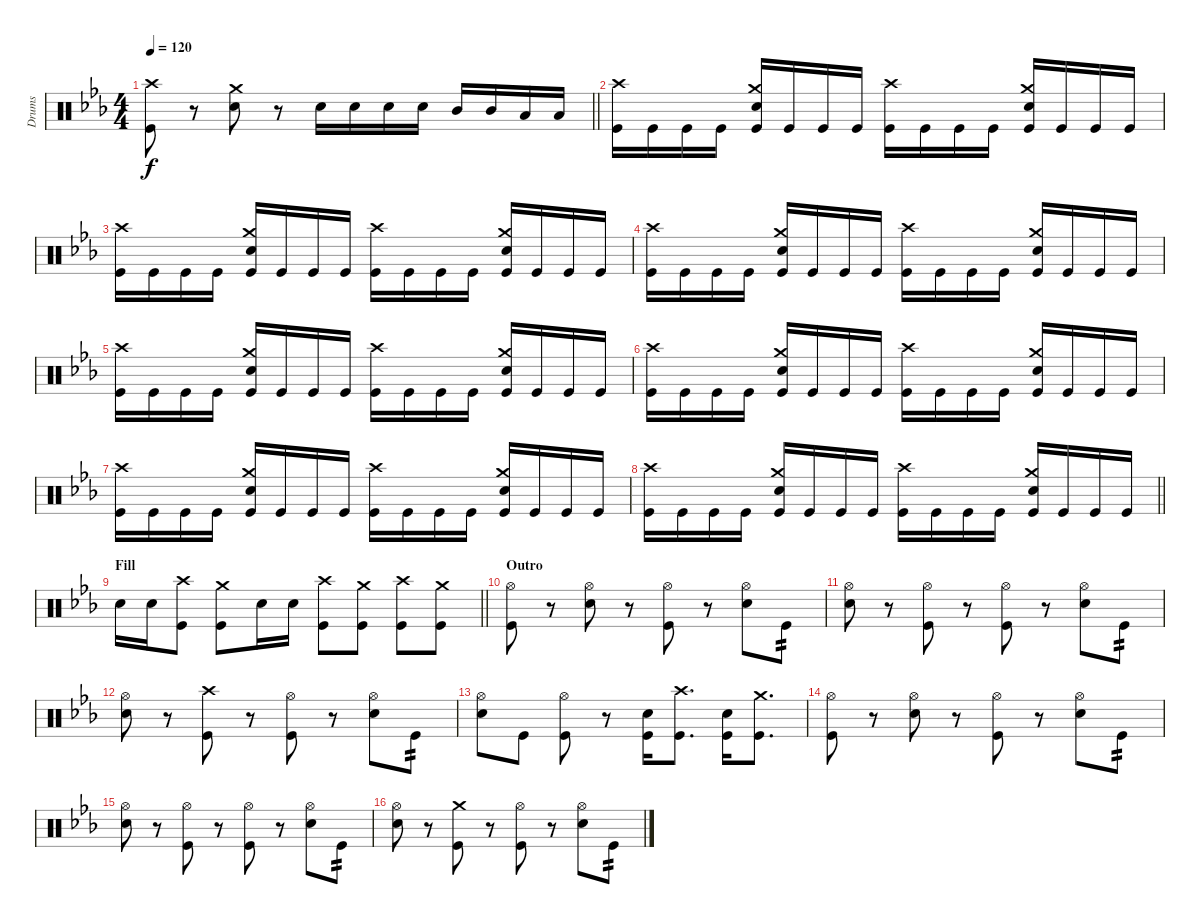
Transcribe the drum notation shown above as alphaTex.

\track ("Drums" "Drums") {instrument percussion}
\staff {score}
\articulation defaults
\ts (4 4)
\tempo 120
\clef neutral
\barLineRight lightlight
\ks cminor
("Crash high (hit)" "Kick (hit)").8{dy f} r.8 ("Crash medium (hit)" "Snare (hit) 2").8 r.8 "Snare (hit) 2".16 "Snare (hit) 2".16 "Snare (hit) 2".16 "Snare (hit) 2".16 "Mid Tom (hit)".16 "Mid Tom (hit)".16 "Low Tom (hit)".16 "Low Tom (hit)".16 |
("Crash high (hit)" "Kick (hit)").16 "Kick (hit)".16 "Kick (hit)".16 "Kick (hit)".16 ("Crash medium (hit)" "Snare (hit) 2" "Kick (hit)").16 "Kick (hit)".16 "Kick (hit)".16 "Kick (hit)".16 ("Crash high (hit)" "Kick (hit)").16 "Kick (hit)".16 "Kick (hit)".16 "Kick (hit)".16 ("Crash medium (hit)" "Snare (hit) 2" "Kick (hit)").16 "Kick (hit)".16 "Kick (hit)".16 "Kick (hit)".16 |
("Crash high (hit)" "Kick (hit)").16 "Kick (hit)".16 "Kick (hit)".16 "Kick (hit)".16 ("Crash medium (hit)" "Snare (hit) 2" "Kick (hit)").16 "Kick (hit)".16 "Kick (hit)".16 "Kick (hit)".16 ("Crash high (hit)" "Kick (hit)").16 "Kick (hit)".16 "Kick (hit)".16 "Kick (hit)".16 ("Crash medium (hit)" "Snare (hit) 2" "Kick (hit)").16 "Kick (hit)".16 "Kick (hit)".16 "Kick (hit)".16 |
("Crash high (hit)" "Kick (hit)").16 "Kick (hit)".16 "Kick (hit)".16 "Kick (hit)".16 ("Crash medium (hit)" "Snare (hit) 2" "Kick (hit)").16 "Kick (hit)".16 "Kick (hit)".16 "Kick (hit)".16 ("Crash high (hit)" "Kick (hit)").16 "Kick (hit)".16 "Kick (hit)".16 "Kick (hit)".16 ("Crash medium (hit)" "Snare (hit) 2" "Kick (hit)").16 "Kick (hit)".16 "Kick (hit)".16 "Kick (hit)".16 |
("Crash high (hit)" "Kick (hit)").16 "Kick (hit)".16 "Kick (hit)".16 "Kick (hit)".16 ("Crash medium (hit)" "Snare (hit) 2" "Kick (hit)").16 "Kick (hit)".16 "Kick (hit)".16 "Kick (hit)".16 ("Crash high (hit)" "Kick (hit)").16 "Kick (hit)".16 "Kick (hit)".16 "Kick (hit)".16 ("Crash medium (hit)" "Snare (hit) 2" "Kick (hit)").16 "Kick (hit)".16 "Kick (hit)".16 "Kick (hit)".16 |
("Crash high (hit)" "Kick (hit)").16 "Kick (hit)".16 "Kick (hit)".16 "Kick (hit)".16 ("Crash medium (hit)" "Snare (hit) 2" "Kick (hit)").16 "Kick (hit)".16 "Kick (hit)".16 "Kick (hit)".16 ("Crash high (hit)" "Kick (hit)").16 "Kick (hit)".16 "Kick (hit)".16 "Kick (hit)".16 ("Crash medium (hit)" "Snare (hit) 2" "Kick (hit)").16 "Kick (hit)".16 "Kick (hit)".16 "Kick (hit)".16 |
("Crash high (hit)" "Kick (hit)").16 "Kick (hit)".16 "Kick (hit)".16 "Kick (hit)".16 ("Crash medium (hit)" "Snare (hit) 2" "Kick (hit)").16 "Kick (hit)".16 "Kick (hit)".16 "Kick (hit)".16 ("Crash high (hit)" "Kick (hit)").16 "Kick (hit)".16 "Kick (hit)".16 "Kick (hit)".16 ("Crash medium (hit)" "Snare (hit) 2" "Kick (hit)").16 "Kick (hit)".16 "Kick (hit)".16 "Kick (hit)".16 |
\barLineRight lightlight
("Crash high (hit)" "Kick (hit)").16 "Kick (hit)".16 "Kick (hit)".16 "Kick (hit)".16 ("Crash medium (hit)" "Snare (hit) 2" "Kick (hit)").16 "Kick (hit)".16 "Kick (hit)".16 "Kick (hit)".16 ("Crash high (hit)" "Kick (hit)").16 "Kick (hit)".16 "Kick (hit)".16 "Kick (hit)".16 ("Crash medium (hit)" "Snare (hit) 2" "Kick (hit)").16 "Kick (hit)".16 "Kick (hit)".16 "Kick (hit)".16 |
\section ("" "Fill")
\barLineRight lightlight "Snare (hit) 2".16 "Snare (hit) 2".16
("Kick (hit)" "Crash high (hit)").8 ("Kick (hit)" "Crash medium (hit)").8 "Snare (hit) 2".16 "Snare (hit) 2".16 ("Kick (hit)" "Crash high (hit)").8 ("Kick (hit)" "Crash medium (hit)").8 ("Kick (hit)" "Crash high (hit)").8 ("Kick (hit)" "Crash medium (hit)").8 |
\section ("" "Outro")
("Hi-Hat (open)" "Kick (hit)").8 r.8 ("Hi-Hat (open)" "Snare (hit) 2").8 r.8 ("Hi-Hat (open)" "Kick (hit)").8 r.8 ("Hi-Hat (open)" "Snare (hit) 2").8 "Kick (hit)".8{tp 2} |
("Hi-Hat (open)" "Snare (hit) 2").8 r.8 ("Hi-Hat (open)" "Kick (hit)").8 r.8 ("Hi-Hat (open)" "Kick (hit)").8 r.8 ("Hi-Hat (open)" "Snare (hit) 2").8 "Kick (hit)".8{tp 2} |
("Hi-Hat (open)" "Snare (hit) 2").8 r.8 ("Crash high (hit)" "Kick (hit)").8 r.8 ("Hi-Hat (open)" "Kick (hit)").8 r.8 ("Hi-Hat (open)" "Snare (hit) 2").8 "Kick (hit)".8{tp 2} |
("Hi-Hat (open)" "Snare (hit) 2").8 "Kick (hit)".8 ("Hi-Hat (open)" "Kick (hit)").8 r.8 ("Snare (hit) 2" "Kick (hit)").16 ("Crash high (hit)" "Kick (hit)").8{d} ("Snare (hit) 2" "Kick (hit)").16 ("Crash medium (hit)" "Kick (hit)").8{d} |
("Hi-Hat (open)" "Kick (hit)").8 r.8 ("Hi-Hat (open)" "Snare (hit) 2").8 r.8 ("Hi-Hat (open)" "Kick (hit)").8 r.8 ("Hi-Hat (open)" "Snare (hit) 2").8 "Kick (hit)".8{tp 2} |
("Hi-Hat (open)" "Snare (hit) 2").8 r.8 ("Hi-Hat (open)" "Kick (hit)").8 r.8 ("Hi-Hat (open)" "Kick (hit)").8 r.8 ("Hi-Hat (open)" "Snare (hit) 2").8 "Kick (hit)".8{tp 2} |
("Hi-Hat (open)" "Snare (hit) 2").8 r.8 ("Crash medium (hit)" "Kick (hit)").8 r.8 ("Hi-Hat (open)" "Kick (hit)").8 r.8 ("Hi-Hat (open)" "Snare (hit) 2").8 "Kick (hit)".8{tp 2}
